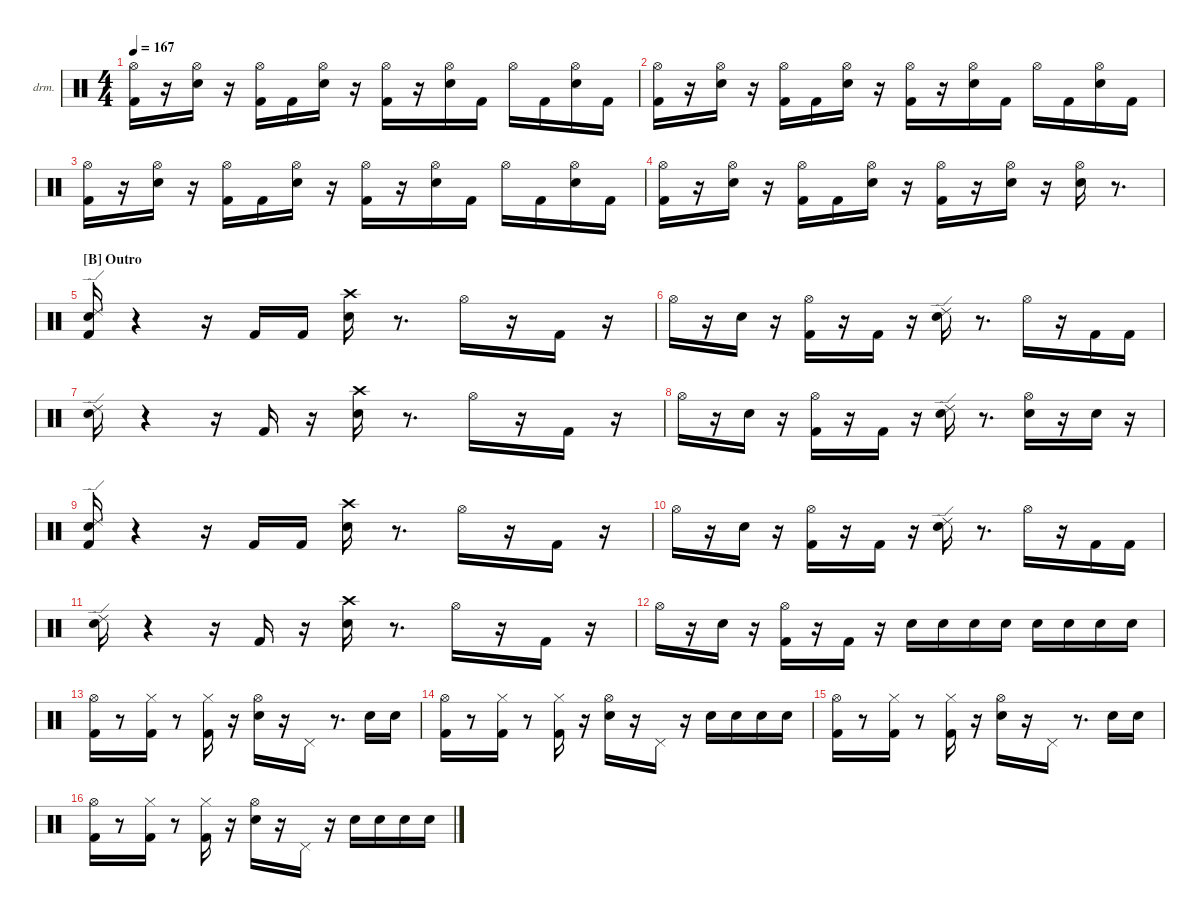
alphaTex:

\hideDynamics
\bracketExtendMode nobrackets
\firstSystemTrackNameOrientation horizontal
\otherSystemsTrackNameOrientation horizontal
\track ("Drums" "drm.") {instrument percussion}
\staff {score}
\articulation defaults
\ts (4 4)
\tempo 167
\clef neutral
\ks aminor
("Kick (hit) 2" "Hi-Hat (open)"{acc #}).16{dy fff} r.16 ("Hi-Hat (open)"{acc #} "Snare (hit) 2").16{dy ff} r.16 ("Kick (hit) 2" "Hi-Hat (open)"{acc #}).16 "Kick (hit) 2".16 ("Snare (hit) 2" "Hi-Hat (open)"{acc #}).16{dy mf} r.16 ("Hi-Hat (open)"{acc #} "Kick (hit) 2").16{dy ff} r.16 ("Hi-Hat (open)"{acc #} "Snare (hit) 2").16 "Kick (hit) 2".16 "Hi-Hat (open)"{acc #}.16 "Kick (hit) 2".16 ("Hi-Hat (open)"{acc #} "Snare (hit) 2").16{dy mf} "Kick (hit) 2".16 |
("Kick (hit) 2" "Hi-Hat (open)"{acc #}).16{dy fff} r.16 ("Snare (hit) 2" "Hi-Hat (open)"{acc #}).16{dy ff} r.16 ("Kick (hit) 2" "Hi-Hat (open)"{acc #}).16 "Kick (hit) 2".16 ("Snare (hit) 2" "Hi-Hat (open)"{acc #}).16{dy mf} r.16 ("Kick (hit) 2" "Hi-Hat (open)"{acc #}).16{dy ff} r.16 ("Snare (hit) 2" "Hi-Hat (open)"{acc #}).16{dy mf} "Kick (hit) 2".16{dy ff} "Hi-Hat (open)"{acc #}.16 "Kick (hit) 2".16 ("Hi-Hat (open)"{acc #} "Snare (hit) 2").16{dy f} "Kick (hit) 2".16{dy ff} |
("Hi-Hat (open)"{acc #} "Kick (hit) 2").16{dy fff} r.16 ("Hi-Hat (open)"{acc #} "Snare (hit) 2").16{dy mf} r.16 ("Kick (hit) 2" "Hi-Hat (open)"{acc #}).16{dy ff} "Kick (hit) 2".16 ("Snare (hit) 2" "Hi-Hat (open)"{acc #}).16{dy mf} r.16 ("Kick (hit) 2" "Hi-Hat (open)"{acc #}).16{dy ff} r.16 ("Snare (hit) 2" "Hi-Hat (open)"{acc #}).16{dy mf} "Kick (hit) 2".16{dy ff} "Hi-Hat (open)"{acc #}.16 "Kick (hit) 2".16 ("Snare (hit) 2" "Hi-Hat (open)"{acc #}).16{dy mf} "Kick (hit) 2".16 |
("Kick (hit) 2" "Hi-Hat (open)"{acc #}).16{dy fff} r.16 ("Snare (hit) 2" "Hi-Hat (open)"{acc #}).16{dy ff} r.16 ("Kick (hit) 2" "Hi-Hat (open)"{acc #}).16 "Kick (hit) 2".16 ("Snare (hit) 2" "Hi-Hat (open)"{acc #}).16 r.16 ("Hi-Hat (open)"{acc #} "Kick (hit) 2").16 r.16 ("Hi-Hat (open)"{acc #} "Snare (hit) 2").16{dy f} r.16 ("Snare (hit) 2" "Hi-Hat (open)"{acc #}).16{dy fff} r.8{d} |
\section ("B" "Outro")
("Snare (hit) 2" "Ride (edge) 2" "Kick (hit) 2").16 r.4 r.16 "Kick (hit) 2".16{dy mf} "Kick (hit) 2".16{dy ff} ("Snare (hit) 2" "Crash high (hit)"{acc #}).16 r.8{d} "Hi-Hat (open)"{acc #}.16{dy mf} r.16 "Kick (hit) 2".16{dy ff} r.16 |
"Hi-Hat (open)"{acc #}.16{dy fff} r.16 "Snare (hit) 2".16 r.16 ("Hi-Hat (open)"{acc #} "Kick (hit) 2").16{dy f} r.16 "Kick (hit) 2".16{dy ff} r.16 ("Ride (edge) 2" "Snare (hit) 2").16{dy fff} r.8{d} "Hi-Hat (open)"{acc #}.16{dy f} r.16 "Kick (hit) 2".16{dy mf} "Kick (hit) 2".16{dy ff} |
("Snare (hit) 2" "Ride (edge) 2").16{dy fff} r.4 r.16 "Kick (hit) 2".16{dy mf} r.16 ("Snare (hit) 2" "Crash high (hit)"{acc #}).16{dy ff} r.8{d} "Hi-Hat (open)"{acc #}.16{dy mf} r.16 "Kick (hit) 2".16{dy ff} r.16 |
"Hi-Hat (open)"{acc #}.16{dy fff} r.16 "Snare (hit) 2".16 r.16 ("Kick (hit) 2" "Hi-Hat (open)"{acc #}).16{dy f} r.16 "Kick (hit) 2".16{dy ff} r.16 ("Snare (hit) 2" "Ride (edge) 2").16 r.8{d} ("Snare (hit) 2" "Hi-Hat (open)"{acc #}).16{dy f} r.16 "Snare (hit) 2".16{dy mp} r.16 |
("Snare (hit) 2" "Ride (edge) 2" "Kick (hit) 2").16{dy fff} r.4 r.16 "Kick (hit) 2".16{dy mf} "Kick (hit) 2".16{dy ff} ("Snare (hit) 2" "Crash high (hit)"{acc #}).16 r.8{d} "Hi-Hat (open)"{acc #}.16{dy mf} r.16 "Kick (hit) 2".16{dy ff} r.16 |
"Hi-Hat (open)"{acc #}.16{dy fff} r.16 "Snare (hit) 2".16 r.16 ("Kick (hit) 2" "Hi-Hat (open)"{acc #}).16{dy mf} r.16 "Kick (hit) 2".16{dy ff} r.16 ("Snare (hit) 2" "Ride (edge) 2").16 r.8{d} "Hi-Hat (open)"{acc #}.16{dy f} r.16 "Kick (hit) 2".16{dy mf} "Kick (hit) 2".16{dy ff} |
("Snare (hit) 2" "Ride (edge) 2").16{dy fff} r.4 r.16 "Kick (hit) 2".16{dy mf} r.16 ("Snare (hit) 2" "Crash high (hit)"{acc #}).16{dy ff} r.8{d} "Hi-Hat (open)"{acc #}.16{dy mf} r.16 "Kick (hit) 2".16{dy ff} r.16 |
"Hi-Hat (open)"{acc #}.16{dy fff} r.16 "Snare (hit) 2".16 r.16 ("Kick (hit) 2" "Hi-Hat (open)"{acc #}).16{dy mf} r.16 "Kick (hit) 2".16{dy ff} r.16 "Snare (hit) 2".16 "Snare (hit) 2".16{dy p} "Snare (hit) 2".16{dy mf} "Snare (hit) 2".16{dy p} "Snare (hit) 2".16{dy fff} "Snare (hit) 2".16{dy f} "Snare (hit) 2".16{dy ff} "Snare (hit) 2".16 |
("Kick (hit) 2" "Hi-Hat (open)"{acc #}).16{dy fff} r.8 ("Kick (hit) 2" "Hi-Hat (closed)"{acc #}).16{dy ff} r.8 ("Kick (hit) 2" "Hi-Hat (closed)"{acc #}).16 r.16 ("Snare (hit) 2" "Hi-Hat (open)"{acc #}).16 r.16 "Pedal Hi-Hat (hit)"{acc #}.16 r.8{d} "Snare (hit) 2".16{dy mf} "Snare (hit) 2".16{dy p} |
("Hi-Hat (open)"{acc #} "Kick (hit) 2").16{dy fff} r.8 ("Kick (hit) 2" "Hi-Hat (closed)"{acc #}).16{dy ff} r.8 ("Kick (hit) 2" "Hi-Hat (closed)"{acc #}).16 r.16 ("Snare (hit) 2" "Hi-Hat (open)"{acc #}).16 r.16 "Pedal Hi-Hat (hit)"{acc #}.16 r.16 "Snare (hit) 2".16{dy f} "Snare (hit) 2".16{dy mf} "Snare (hit) 2".16{dy fff} "Snare (hit) 2".16 |
("Kick (hit) 2" "Hi-Hat (open)"{acc #}).16{dy ff} r.8 ("Kick (hit) 2" "Hi-Hat (closed)"{acc #}).16 r.8 ("Kick (hit) 2" "Hi-Hat (closed)"{acc #}).16 r.16 ("Snare (hit) 2" "Hi-Hat (open)"{acc #}).16 r.16 "Pedal Hi-Hat (hit)"{acc #}.16 r.8{d} "Snare (hit) 2".16{dy mf} "Snare (hit) 2".16{dy p} |
("Hi-Hat (open)"{acc #} "Kick (hit) 2").16{dy ff} r.8 ("Kick (hit) 2" "Hi-Hat (closed)"{acc #}).16 r.8 ("Hi-Hat (closed)"{acc #} "Kick (hit) 2").16 r.16 ("Snare (hit) 2" "Hi-Hat (open)"{acc #}).16{dy fff} r.16 "Pedal Hi-Hat (hit)"{acc #}.16{dy ff} r.16 "Snare (hit) 2".16{dy f} "Snare (hit) 2".16{dy mf} "Snare (hit) 2".16{dy fff} "Snare (hit) 2".16
